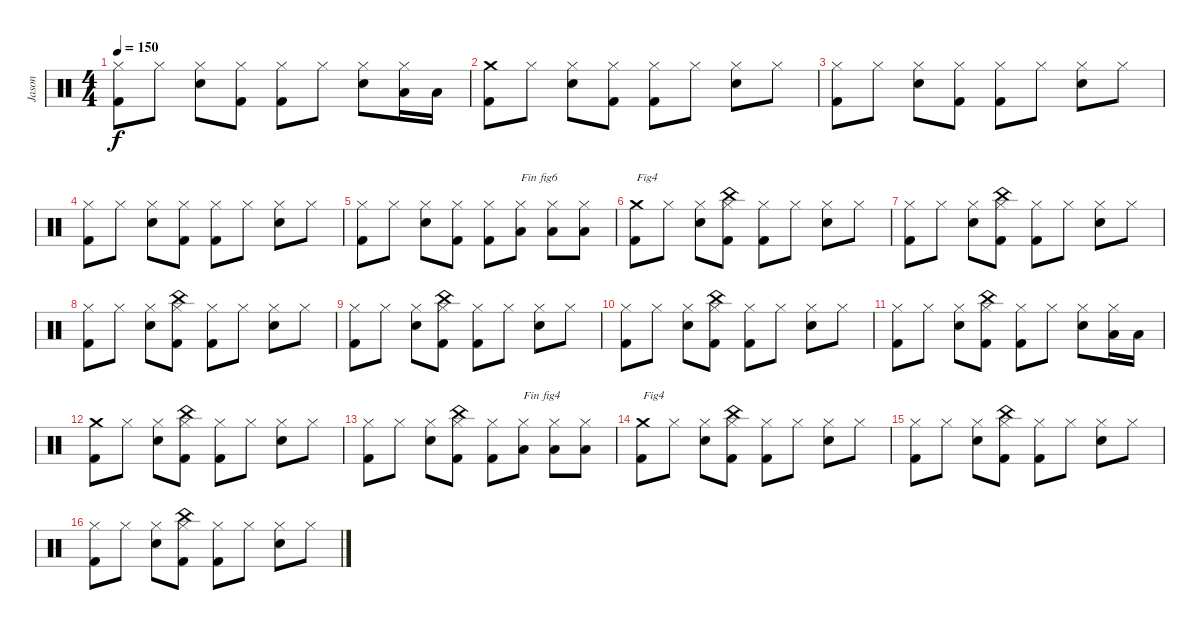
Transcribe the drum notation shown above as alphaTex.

\track ("Jason" "Jason") {instrument percussion}
\staff {score}
\articulation defaults
\ts (4 4)
\tempo 150
\clef neutral
\ks c
("Kick (hit) 2" "Hi-Hat (closed)").8{dy f} "Hi-Hat (closed)".8 ("Electric Snare (hit)" "Hi-Hat (closed)").8 ("Kick (hit) 2" "Hi-Hat (closed)").8 ("Kick (hit) 2" "Hi-Hat (closed)").8 "Hi-Hat (closed)".8 ("Electric Snare (hit)" "Hi-Hat (closed)").8 ("Low Tom (hit)" "Hi-Hat (closed)").16 "Low Tom (hit)".16 |
("Kick (hit) 2" "Crash medium (hit)").8 "Hi-Hat (closed)".8 ("Electric Snare (hit)" "Hi-Hat (closed)").8 ("Kick (hit) 2" "Hi-Hat (closed)").8 ("Kick (hit) 2" "Hi-Hat (closed)").8 "Hi-Hat (closed)".8 ("Electric Snare (hit)" "Hi-Hat (closed)").8 "Hi-Hat (closed)".8 |
("Kick (hit) 2" "Hi-Hat (closed)").8 "Hi-Hat (closed)".8 ("Electric Snare (hit)" "Hi-Hat (closed)").8 ("Kick (hit) 2" "Hi-Hat (closed)").8 ("Kick (hit) 2" "Hi-Hat (closed)").8 "Hi-Hat (closed)".8 ("Electric Snare (hit)" "Hi-Hat (closed)").8 "Hi-Hat (closed)".8 |
("Kick (hit) 2" "Hi-Hat (closed)").8 "Hi-Hat (closed)".8 ("Electric Snare (hit)" "Hi-Hat (closed)").8 ("Kick (hit) 2" "Hi-Hat (closed)").8 ("Kick (hit) 2" "Hi-Hat (closed)").8 "Hi-Hat (closed)".8 ("Electric Snare (hit)" "Hi-Hat (closed)").8 "Hi-Hat (closed)".8 |
("Kick (hit) 2" "Hi-Hat (closed)").8 "Hi-Hat (closed)".8 ("Electric Snare (hit)" "Hi-Hat (closed)").8 ("Kick (hit) 2" "Hi-Hat (closed)").8 ("Kick (hit) 2" "Hi-Hat (closed)").8 ("Low Tom (hit)" "Hi-Hat (closed)").8{txt "Fin fig6"} ("Low Tom (hit)" "Hi-Hat (closed)").8 ("Low Tom (hit)" "Hi-Hat (closed)").8 |
("Kick (hit) 2" "Crash medium (hit)").8{txt "Fig4"} "Hi-Hat (closed)".8 ("Electric Snare (hit)" "Hi-Hat (closed)").8 ("Kick (hit) 2" "China (hit)" "Hi-Hat (closed)").8 ("Kick (hit) 2" "Hi-Hat (closed)").8 "Hi-Hat (closed)".8 ("Electric Snare (hit)" "Hi-Hat (closed)").8 "Hi-Hat (closed)".8 |
("Kick (hit) 2" "Hi-Hat (closed)").8 "Hi-Hat (closed)".8 ("Electric Snare (hit)" "Hi-Hat (closed)").8 ("Kick (hit) 2" "China (hit)" "Hi-Hat (closed)").8 ("Kick (hit) 2" "Hi-Hat (closed)").8 "Hi-Hat (closed)".8 ("Electric Snare (hit)" "Hi-Hat (closed)").8 "Hi-Hat (closed)".8 |
("Kick (hit) 2" "Hi-Hat (closed)").8 "Hi-Hat (closed)".8 ("Electric Snare (hit)" "Hi-Hat (closed)").8 ("Kick (hit) 2" "China (hit)" "Hi-Hat (closed)").8 ("Kick (hit) 2" "Hi-Hat (closed)").8 "Hi-Hat (closed)".8 ("Electric Snare (hit)" "Hi-Hat (closed)").8 "Hi-Hat (closed)".8 |
("Kick (hit) 2" "Hi-Hat (closed)").8 "Hi-Hat (closed)".8 ("Electric Snare (hit)" "Hi-Hat (closed)").8 ("Kick (hit) 2" "China (hit)" "Hi-Hat (closed)").8 ("Kick (hit) 2" "Hi-Hat (closed)").8 "Hi-Hat (closed)".8 ("Electric Snare (hit)" "Hi-Hat (closed)").8 "Hi-Hat (closed)".8 |
("Kick (hit) 2" "Hi-Hat (closed)").8 "Hi-Hat (closed)".8 ("Electric Snare (hit)" "Hi-Hat (closed)").8 ("Kick (hit) 2" "China (hit)" "Hi-Hat (closed)").8 ("Kick (hit) 2" "Hi-Hat (closed)").8 "Hi-Hat (closed)".8 ("Electric Snare (hit)" "Hi-Hat (closed)").8 "Hi-Hat (closed)".8 |
("Kick (hit) 2" "Hi-Hat (closed)").8 "Hi-Hat (closed)".8 ("Electric Snare (hit)" "Hi-Hat (closed)").8 ("Kick (hit) 2" "China (hit)" "Hi-Hat (closed)").8 ("Kick (hit) 2" "Hi-Hat (closed)").8 "Hi-Hat (closed)".8 ("Electric Snare (hit)" "Hi-Hat (closed)").8 ("Low Tom (hit)" "Hi-Hat (closed)").16 "Low Tom (hit)".16 |
("Kick (hit) 2" "Crash medium (hit)").8 "Hi-Hat (closed)".8 ("Electric Snare (hit)" "Hi-Hat (closed)").8 ("Kick (hit) 2" "China (hit)" "Hi-Hat (closed)").8 ("Kick (hit) 2" "Hi-Hat (closed)").8 "Hi-Hat (closed)".8 ("Electric Snare (hit)" "Hi-Hat (closed)").8 "Hi-Hat (closed)".8 |
("Kick (hit) 2" "Hi-Hat (closed)").8 "Hi-Hat (closed)".8 ("Electric Snare (hit)" "Hi-Hat (closed)").8 ("Kick (hit) 2" "China (hit)" "Hi-Hat (closed)").8 ("Kick (hit) 2" "Hi-Hat (closed)").8 ("Low Tom (hit)" "Hi-Hat (closed)").8{txt "Fin fig4"} ("Low Tom (hit)" "Hi-Hat (closed)").8 ("Low Tom (hit)" "Hi-Hat (closed)").8 |
("Kick (hit) 2" "Crash medium (hit)").8{txt "Fig4"} "Hi-Hat (closed)".8 ("Electric Snare (hit)" "Hi-Hat (closed)").8 ("Kick (hit) 2" "China (hit)" "Hi-Hat (closed)").8 ("Kick (hit) 2" "Hi-Hat (closed)").8 "Hi-Hat (closed)".8 ("Electric Snare (hit)" "Hi-Hat (closed)").8 "Hi-Hat (closed)".8 |
("Kick (hit) 2" "Hi-Hat (closed)").8 "Hi-Hat (closed)".8 ("Electric Snare (hit)" "Hi-Hat (closed)").8 ("Kick (hit) 2" "China (hit)" "Hi-Hat (closed)").8 ("Kick (hit) 2" "Hi-Hat (closed)").8 "Hi-Hat (closed)".8 ("Electric Snare (hit)" "Hi-Hat (closed)").8 "Hi-Hat (closed)".8 |
("Kick (hit) 2" "Hi-Hat (closed)").8 "Hi-Hat (closed)".8 ("Electric Snare (hit)" "Hi-Hat (closed)").8 ("Kick (hit) 2" "China (hit)" "Hi-Hat (closed)").8 ("Kick (hit) 2" "Hi-Hat (closed)").8 "Hi-Hat (closed)".8 ("Electric Snare (hit)" "Hi-Hat (closed)").8 "Hi-Hat (closed)".8
